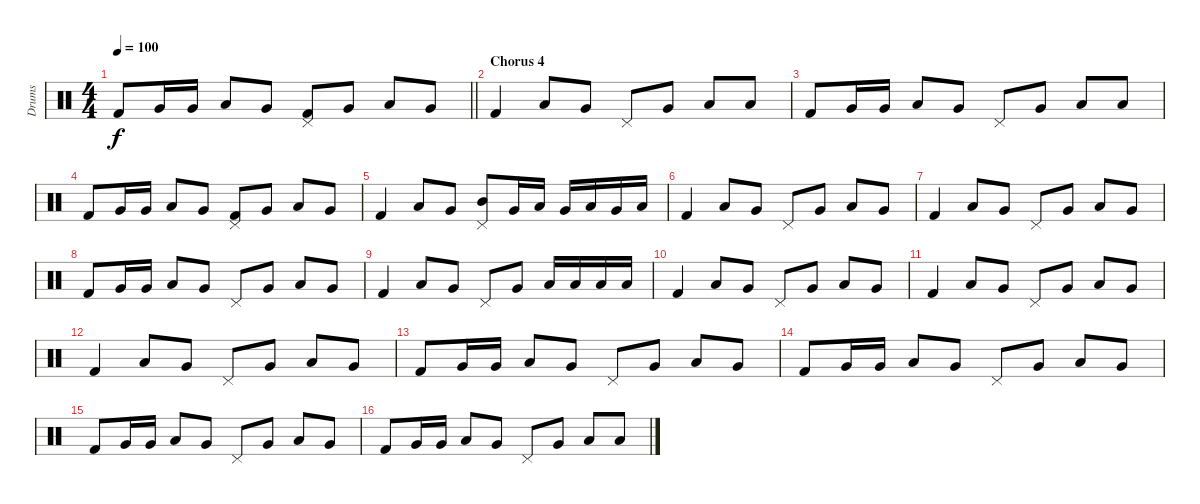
\track ("Drums" "Drums") {instrument percussion}
\staff {score}
\articulation defaults
\ts (4 4)
\tempo 100
\clef neutral
\barLineRight lightlight
\ks c "Kick (hit) 2".8{dy f} "Very Low Tom (hit)".16 "Very Low Tom (hit)".16 "Low Tom (hit)".8 "Very Low Tom (hit)".8
("Pedal Hi-Hat (hit)" "Kick (hit) 2").8 "Very Low Tom (hit)".8 "Low Tom (hit)".8 "Very Low Tom (hit)".8 |
\section ("" "Chorus 4")
"Kick (hit) 2".4 "Low Tom (hit)".8 "Very Low Tom (hit)".8 "Pedal Hi-Hat (hit)".8 "Very Low Tom (hit)".8 "Low Tom (hit)".8 "Low Tom (hit)".8 |
"Kick (hit) 2".8 "Very Low Tom (hit)".16 "Very Low Tom (hit)".16 "Low Tom (hit)".8 "Very Low Tom (hit)".8 "Pedal Hi-Hat (hit)".8 "Very Low Tom (hit)".8 "Low Tom (hit)".8 "Low Tom (hit)".8 |
"Kick (hit) 2".8 "Very Low Tom (hit)".16 "Very Low Tom (hit)".16 "Low Tom (hit)".8 "Very Low Tom (hit)".8 ("Pedal Hi-Hat (hit)" "Kick (hit) 2").8 "Very Low Tom (hit)".8 "Low Tom (hit)".8 "Very Low Tom (hit)".8 |
"Kick (hit) 2".4 "Low Tom (hit)".8 "Very Low Tom (hit)".8 ("Pedal Hi-Hat (hit)" "Mid Tom (hit)").8 "Very Low Tom (hit)".16 "Low Tom (hit)".16 "Very Low Tom (hit)".16 "Low Tom (hit)".16 "Very Low Tom (hit)".16 "Low Tom (hit)".16 |
"Kick (hit) 2".4 "Low Tom (hit)".8 "Very Low Tom (hit)".8 "Pedal Hi-Hat (hit)".8 "Very Low Tom (hit)".8 "Low Tom (hit)".8 "Very Low Tom (hit)".8 |
"Kick (hit) 2".4 "Low Tom (hit)".8 "Very Low Tom (hit)".8 "Pedal Hi-Hat (hit)".8 "Very Low Tom (hit)".8 "Low Tom (hit)".8 "Very Low Tom (hit)".8 |
"Kick (hit) 2".8 "Very Low Tom (hit)".16 "Very Low Tom (hit)".16 "Low Tom (hit)".8 "Very Low Tom (hit)".8 "Pedal Hi-Hat (hit)".8 "Very Low Tom (hit)".8 "Low Tom (hit)".8 "Very Low Tom (hit)".8 |
"Kick (hit) 2".4 "Low Tom (hit)".8 "Very Low Tom (hit)".8 "Pedal Hi-Hat (hit)".8 "Very Low Tom (hit)".8 "Low Tom (hit)".16 "Low Tom (hit)".16 "Low Tom (hit)".16 "Low Tom (hit)".16 |
"Kick (hit) 2".4 "Low Tom (hit)".8 "Very Low Tom (hit)".8 "Pedal Hi-Hat (hit)".8 "Very Low Tom (hit)".8 "Low Tom (hit)".8 "Very Low Tom (hit)".8 |
"Kick (hit) 2".4 "Low Tom (hit)".8 "Very Low Tom (hit)".8 "Pedal Hi-Hat (hit)".8 "Very Low Tom (hit)".8 "Low Tom (hit)".8 "Very Low Tom (hit)".8 |
"Kick (hit) 2".4 "Low Tom (hit)".8 "Very Low Tom (hit)".8 "Pedal Hi-Hat (hit)".8 "Very Low Tom (hit)".8 "Low Tom (hit)".8 "Very Low Tom (hit)".8 |
"Kick (hit) 2".8 "Very Low Tom (hit)".16 "Very Low Tom (hit)".16 "Low Tom (hit)".8 "Very Low Tom (hit)".8 "Pedal Hi-Hat (hit)".8 "Very Low Tom (hit)".8 "Low Tom (hit)".8 "Very Low Tom (hit)".8 |
"Kick (hit) 2".8 "Very Low Tom (hit)".16 "Very Low Tom (hit)".16 "Low Tom (hit)".8 "Very Low Tom (hit)".8 "Pedal Hi-Hat (hit)".8 "Very Low Tom (hit)".8 "Low Tom (hit)".8 "Very Low Tom (hit)".8 |
"Kick (hit) 2".8 "Very Low Tom (hit)".16 "Very Low Tom (hit)".16 "Low Tom (hit)".8 "Very Low Tom (hit)".8 "Pedal Hi-Hat (hit)".8 "Very Low Tom (hit)".8 "Low Tom (hit)".8 "Very Low Tom (hit)".8 |
"Kick (hit) 2".8 "Very Low Tom (hit)".16 "Very Low Tom (hit)".16 "Low Tom (hit)".8 "Very Low Tom (hit)".8 "Pedal Hi-Hat (hit)".8 "Very Low Tom (hit)".8 "Low Tom (hit)".8 "Low Tom (hit)".8
